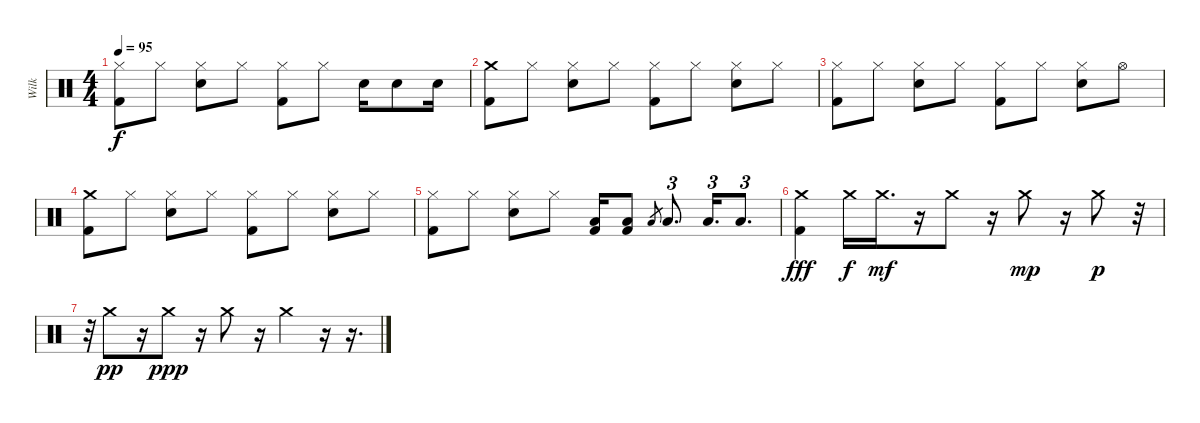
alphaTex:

\track ("Wilk" "Wilk") {instrument percussion}
\staff {score}
\articulation defaults
\ts (4 4)
\tempo 95
\clef neutral
\ks c
("Hi-Hat (closed)" "Kick (hit) 2").8{dy f} "Hi-Hat (closed)".8 ("Hi-Hat (closed)" "Snare (hit) 2").8 "Hi-Hat (closed)".8 ("Hi-Hat (closed)" "Kick (hit) 2").8 "Hi-Hat (closed)".8 "Snare (hit) 2".16 "Snare (hit) 2".8 "Snare (hit) 2".16 |
("Crash medium (hit)" "Kick (hit) 2").8 "Hi-Hat (closed)".8 ("Hi-Hat (closed)" "Snare (hit) 2").8 "Hi-Hat (closed)".8 ("Hi-Hat (closed)" "Kick (hit) 2").8 "Hi-Hat (closed)".8 ("Hi-Hat (closed)" "Snare (hit) 2").8 "Hi-Hat (closed)".8 |
("Hi-Hat (closed)" "Kick (hit) 2").8 "Hi-Hat (closed)".8 ("Hi-Hat (closed)" "Snare (hit) 2").8 "Hi-Hat (closed)".8 ("Hi-Hat (closed)" "Kick (hit) 2").8 "Hi-Hat (closed)".8 ("Hi-Hat (closed)" "Snare (hit) 2").8 "Hi-Hat (open)".8 |
("Crash medium (hit)" "Kick (hit) 2").8 "Hi-Hat (closed)".8 ("Hi-Hat (closed)" "Snare (hit) 2").8 "Hi-Hat (closed)".8 ("Hi-Hat (closed)" "Kick (hit) 2").8 "Hi-Hat (closed)".8 ("Hi-Hat (closed)" "Snare (hit) 2").8 "Hi-Hat (closed)".8 |
("Hi-Hat (closed)" "Kick (hit) 2").8 "Hi-Hat (closed)".8 ("Hi-Hat (closed)" "Snare (hit) 2").8 "Hi-Hat (closed)".8 ("Low Tom (hit)" "Kick (hit) 2").16 ("Low Tom (hit)" "Kick (hit) 2").8 "Low Tom (hit)".8{gr} "Low Tom (hit)".8{d tu (3 2)} "Low Tom (hit)".16{d tu (3 2)} "Low Tom (hit)".8{d tu (3 2)} |
("Crash medium (hit)" "Kick (hit) 2").4{dy fff} "Crash medium (hit)".16{dy f} "Crash medium (hit)".16{d dy mf} r.16 "Crash medium (hit)".8 r.16 "Crash medium (hit)".8{dy mp} r.16 "Crash medium (hit)".8{dy p} r.32 |
r.32 "Crash medium (hit)".8{dy pp} r.16 "Crash medium (hit)".8{dy ppp} r.16 "Crash medium (hit)".8 r.16 "Crash medium (hit)".4 r.16 r.16{d}
